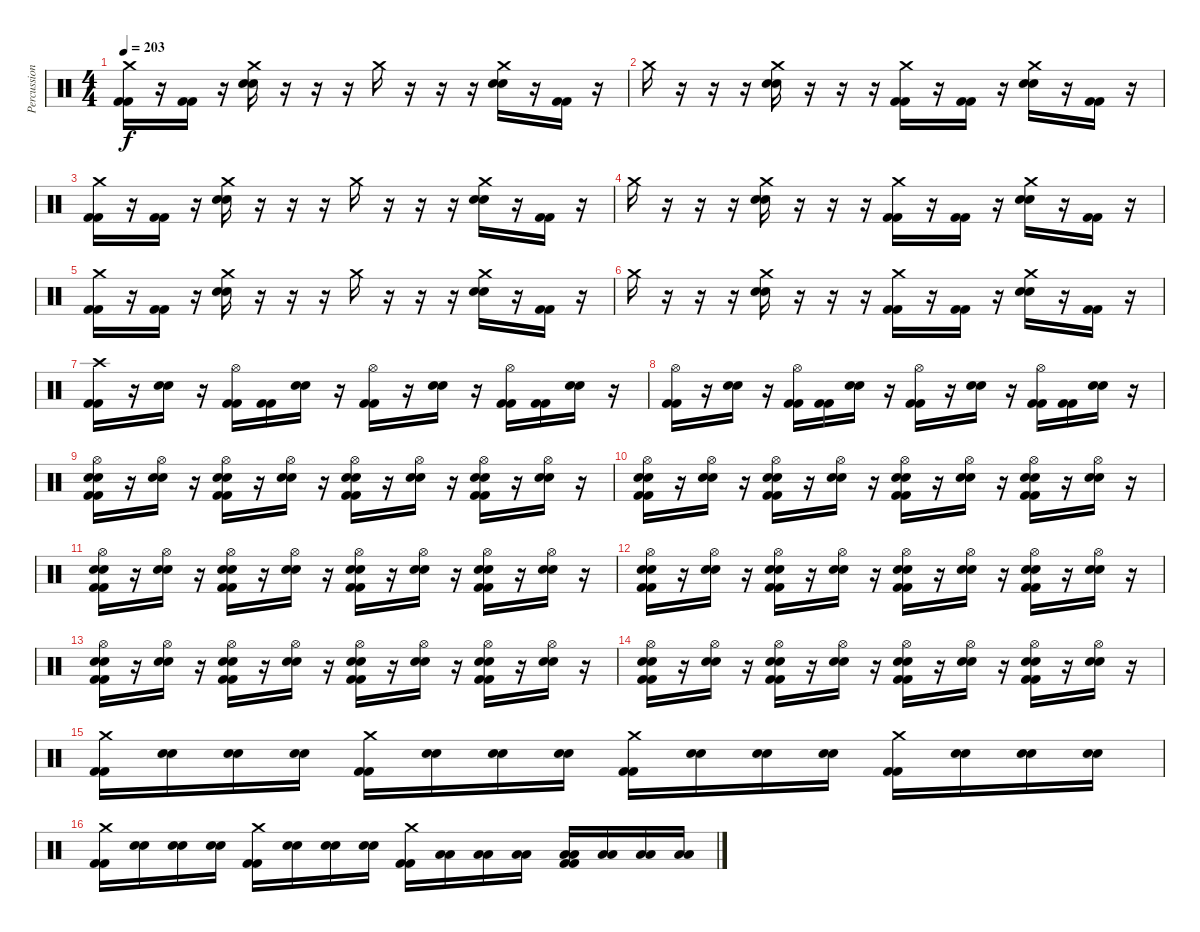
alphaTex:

\track ("Percussion" "Percussion") {instrument percussion}
\staff {score}
\articulation defaults
\ts (4 4)
\tempo 203
\clef neutral
\ks c
("Crash medium (hit)" "Kick (hit) 2" "Kick (hit) 2").16{dy f} r.16 ("Kick (hit) 2" "Kick (hit) 2").16 r.16 ("Crash medium (hit)" "Snare (hit) 2" "Snare (hit) 2").16 r.16 r.16 r.16 "Crash medium (hit)".16 r.16 r.16 r.16 ("Crash medium (hit)" "Snare (hit) 2" "Snare (hit) 2").16 r.16 ("Kick (hit) 2" "Kick (hit) 2").16 r.16 |
"Crash medium (hit)".16 r.16 r.16 r.16 ("Crash medium (hit)" "Snare (hit) 2" "Snare (hit) 2").16 r.16 r.16 r.16 ("Crash medium (hit)" "Kick (hit) 2" "Kick (hit) 2").16 r.16 ("Kick (hit) 2" "Kick (hit) 2").16 r.16 ("Crash medium (hit)" "Snare (hit) 2" "Snare (hit) 2").16 r.16 ("Kick (hit) 2" "Kick (hit) 2").16 r.16 |
("Crash medium (hit)" "Kick (hit) 2" "Kick (hit) 2").16 r.16 ("Kick (hit) 2" "Kick (hit) 2").16 r.16 ("Crash medium (hit)" "Snare (hit) 2" "Snare (hit) 2").16 r.16 r.16 r.16 "Crash medium (hit)".16 r.16 r.16 r.16 ("Crash medium (hit)" "Snare (hit) 2" "Snare (hit) 2").16 r.16 ("Kick (hit) 2" "Kick (hit) 2").16 r.16 |
"Crash medium (hit)".16 r.16 r.16 r.16 ("Crash medium (hit)" "Snare (hit) 2" "Snare (hit) 2").16 r.16 r.16 r.16 ("Crash medium (hit)" "Kick (hit) 2" "Kick (hit) 2").16 r.16 ("Kick (hit) 2" "Kick (hit) 2").16 r.16 ("Crash medium (hit)" "Snare (hit) 2" "Snare (hit) 2").16 r.16 ("Kick (hit) 2" "Kick (hit) 2").16 r.16 |
("Crash medium (hit)" "Kick (hit) 2" "Kick (hit) 2").16 r.16 ("Kick (hit) 2" "Kick (hit) 2").16 r.16 ("Crash medium (hit)" "Snare (hit) 2" "Snare (hit) 2").16 r.16 r.16 r.16 "Crash medium (hit)".16 r.16 r.16 r.16 ("Crash medium (hit)" "Snare (hit) 2" "Snare (hit) 2").16 r.16 ("Kick (hit) 2" "Kick (hit) 2").16 r.16 |
"Crash medium (hit)".16 r.16 r.16 r.16 ("Crash medium (hit)" "Snare (hit) 2" "Snare (hit) 2").16 r.16 r.16 r.16 ("Crash medium (hit)" "Kick (hit) 2" "Kick (hit) 2").16 r.16 ("Kick (hit) 2" "Kick (hit) 2").16 r.16 ("Crash medium (hit)" "Snare (hit) 2" "Snare (hit) 2").16 r.16 ("Kick (hit) 2" "Kick (hit) 2").16 r.16 |
("Crash high (hit)" "Kick (hit) 2" "Kick (hit) 2").16 r.16 ("Snare (hit) 2" "Snare (hit) 2").16 r.16 ("Hi-Hat (open)" "Kick (hit) 2" "Kick (hit) 2").16 ("Kick (hit) 2" "Kick (hit) 2").16 ("Snare (hit) 2" "Snare (hit) 2").16 r.16 ("Hi-Hat (open)" "Kick (hit) 2" "Kick (hit) 2").16 r.16 ("Snare (hit) 2" "Snare (hit) 2").16 r.16 ("Hi-Hat (open)" "Kick (hit) 2" "Kick (hit) 2").16 ("Kick (hit) 2" "Kick (hit) 2").16 ("Snare (hit) 2" "Snare (hit) 2").16 r.16 |
("Hi-Hat (open)" "Kick (hit) 2" "Kick (hit) 2").16 r.16 ("Snare (hit) 2" "Snare (hit) 2").16 r.16 ("Hi-Hat (open)" "Kick (hit) 2" "Kick (hit) 2").16 ("Kick (hit) 2" "Kick (hit) 2").16 ("Snare (hit) 2" "Snare (hit) 2").16 r.16 ("Hi-Hat (open)" "Kick (hit) 2" "Kick (hit) 2").16 r.16 ("Snare (hit) 2" "Snare (hit) 2").16 r.16 ("Hi-Hat (open)" "Kick (hit) 2" "Kick (hit) 2").16 ("Kick (hit) 2" "Kick (hit) 2").16 ("Snare (hit) 2" "Snare (hit) 2").16 r.16 |
("Hi-Hat (open)" "Snare (hit) 2" "Snare (hit) 2" "Kick (hit) 2" "Kick (hit) 2").16 r.16 ("Hi-Hat (open)" "Snare (hit) 2" "Snare (hit) 2").16 r.16 ("Hi-Hat (open)" "Snare (hit) 2" "Snare (hit) 2" "Kick (hit) 2" "Kick (hit) 2").16 r.16 ("Hi-Hat (open)" "Snare (hit) 2" "Snare (hit) 2").16 r.16 ("Hi-Hat (open)" "Snare (hit) 2" "Snare (hit) 2" "Kick (hit) 2" "Kick (hit) 2").16 r.16 ("Hi-Hat (open)" "Snare (hit) 2" "Snare (hit) 2").16 r.16 ("Hi-Hat (open)" "Snare (hit) 2" "Snare (hit) 2" "Kick (hit) 2" "Kick (hit) 2").16 r.16 ("Hi-Hat (open)" "Snare (hit) 2" "Snare (hit) 2").16 r.16 |
("Hi-Hat (open)" "Snare (hit) 2" "Snare (hit) 2" "Kick (hit) 2" "Kick (hit) 2").16 r.16 ("Hi-Hat (open)" "Snare (hit) 2" "Snare (hit) 2").16 r.16 ("Hi-Hat (open)" "Snare (hit) 2" "Snare (hit) 2" "Kick (hit) 2" "Kick (hit) 2").16 r.16 ("Hi-Hat (open)" "Snare (hit) 2" "Snare (hit) 2").16 r.16 ("Hi-Hat (open)" "Snare (hit) 2" "Snare (hit) 2" "Kick (hit) 2" "Kick (hit) 2").16 r.16 ("Hi-Hat (open)" "Snare (hit) 2" "Snare (hit) 2").16 r.16 ("Hi-Hat (open)" "Snare (hit) 2" "Snare (hit) 2" "Kick (hit) 2" "Kick (hit) 2").16 r.16 ("Hi-Hat (open)" "Snare (hit) 2" "Snare (hit) 2").16 r.16 |
("Hi-Hat (open)" "Snare (hit) 2" "Snare (hit) 2" "Kick (hit) 2" "Kick (hit) 2").16 r.16 ("Hi-Hat (open)" "Snare (hit) 2" "Snare (hit) 2").16 r.16 ("Hi-Hat (open)" "Snare (hit) 2" "Snare (hit) 2" "Kick (hit) 2" "Kick (hit) 2").16 r.16 ("Hi-Hat (open)" "Snare (hit) 2" "Snare (hit) 2").16 r.16 ("Hi-Hat (open)" "Snare (hit) 2" "Snare (hit) 2" "Kick (hit) 2" "Kick (hit) 2").16 r.16 ("Hi-Hat (open)" "Snare (hit) 2" "Snare (hit) 2").16 r.16 ("Hi-Hat (open)" "Snare (hit) 2" "Snare (hit) 2" "Kick (hit) 2" "Kick (hit) 2").16 r.16 ("Hi-Hat (open)" "Snare (hit) 2" "Snare (hit) 2").16 r.16 |
("Hi-Hat (open)" "Snare (hit) 2" "Snare (hit) 2" "Kick (hit) 2" "Kick (hit) 2").16 r.16 ("Hi-Hat (open)" "Snare (hit) 2" "Snare (hit) 2").16 r.16 ("Hi-Hat (open)" "Snare (hit) 2" "Snare (hit) 2" "Kick (hit) 2" "Kick (hit) 2").16 r.16 ("Hi-Hat (open)" "Snare (hit) 2" "Snare (hit) 2").16 r.16 ("Hi-Hat (open)" "Snare (hit) 2" "Snare (hit) 2" "Kick (hit) 2" "Kick (hit) 2").16 r.16 ("Hi-Hat (open)" "Snare (hit) 2" "Snare (hit) 2").16 r.16 ("Hi-Hat (open)" "Snare (hit) 2" "Snare (hit) 2" "Kick (hit) 2" "Kick (hit) 2").16 r.16 ("Hi-Hat (open)" "Snare (hit) 2" "Snare (hit) 2").16 r.16 |
("Hi-Hat (open)" "Snare (hit) 2" "Snare (hit) 2" "Kick (hit) 2" "Kick (hit) 2").16 r.16 ("Hi-Hat (open)" "Snare (hit) 2" "Snare (hit) 2").16 r.16 ("Hi-Hat (open)" "Snare (hit) 2" "Snare (hit) 2" "Kick (hit) 2" "Kick (hit) 2").16 r.16 ("Hi-Hat (open)" "Snare (hit) 2" "Snare (hit) 2").16 r.16 ("Hi-Hat (open)" "Snare (hit) 2" "Snare (hit) 2" "Kick (hit) 2" "Kick (hit) 2").16 r.16 ("Hi-Hat (open)" "Snare (hit) 2" "Snare (hit) 2").16 r.16 ("Hi-Hat (open)" "Snare (hit) 2" "Snare (hit) 2" "Kick (hit) 2" "Kick (hit) 2").16 r.16 ("Hi-Hat (open)" "Snare (hit) 2" "Snare (hit) 2").16 r.16 |
("Hi-Hat (open)" "Snare (hit) 2" "Snare (hit) 2" "Kick (hit) 2" "Kick (hit) 2").16 r.16 ("Hi-Hat (open)" "Snare (hit) 2" "Snare (hit) 2").16 r.16 ("Hi-Hat (open)" "Snare (hit) 2" "Snare (hit) 2" "Kick (hit) 2" "Kick (hit) 2").16 r.16 ("Hi-Hat (open)" "Snare (hit) 2" "Snare (hit) 2").16 r.16 ("Hi-Hat (open)" "Snare (hit) 2" "Snare (hit) 2" "Kick (hit) 2" "Kick (hit) 2").16 r.16 ("Hi-Hat (open)" "Snare (hit) 2" "Snare (hit) 2").16 r.16 ("Hi-Hat (open)" "Snare (hit) 2" "Snare (hit) 2" "Kick (hit) 2" "Kick (hit) 2").16 r.16 ("Hi-Hat (open)" "Snare (hit) 2" "Snare (hit) 2").16 r.16 |
("Crash medium (hit)" "Kick (hit) 2" "Kick (hit) 2").16 ("Snare (hit) 2" "Snare (hit) 2").16 ("Snare (hit) 2" "Snare (hit) 2").16 ("Snare (hit) 2" "Snare (hit) 2").16 ("Crash medium (hit)" "Kick (hit) 2" "Kick (hit) 2").16 ("Snare (hit) 2" "Snare (hit) 2").16 ("Snare (hit) 2" "Snare (hit) 2").16 ("Snare (hit) 2" "Snare (hit) 2").16 ("Crash medium (hit)" "Kick (hit) 2" "Kick (hit) 2").16 ("Snare (hit) 2" "Snare (hit) 2").16 ("Snare (hit) 2" "Snare (hit) 2").16 ("Snare (hit) 2" "Snare (hit) 2").16 ("Crash medium (hit)" "Kick (hit) 2" "Kick (hit) 2").16 ("Snare (hit) 2" "Snare (hit) 2").16 ("Snare (hit) 2" "Snare (hit) 2").16 ("Snare (hit) 2" "Snare (hit) 2").16 |
("Crash medium (hit)" "Kick (hit) 2" "Kick (hit) 2").16 ("Snare (hit) 2" "Snare (hit) 2").16 ("Snare (hit) 2" "Snare (hit) 2").16 ("Snare (hit) 2" "Snare (hit) 2").16 ("Crash medium (hit)" "Kick (hit) 2" "Kick (hit) 2").16 ("Snare (hit) 2" "Snare (hit) 2").16 ("Snare (hit) 2" "Snare (hit) 2").16 ("Snare (hit) 2" "Snare (hit) 2").16 ("Crash medium (hit)" "Kick (hit) 2" "Kick (hit) 2").16 ("Low Tom (hit)" "Low Tom (hit)").16 ("Low Tom (hit)" "Low Tom (hit)").16 ("Low Tom (hit)" "Low Tom (hit)").16 ("Low Tom (hit)" "Low Tom (hit)" "Kick (hit) 2" "Kick (hit) 2").16 ("Low Tom (hit)" "Low Tom (hit)").16 ("Low Tom (hit)" "Low Tom (hit)").16 ("Low Tom (hit)" "Low Tom (hit)").16
